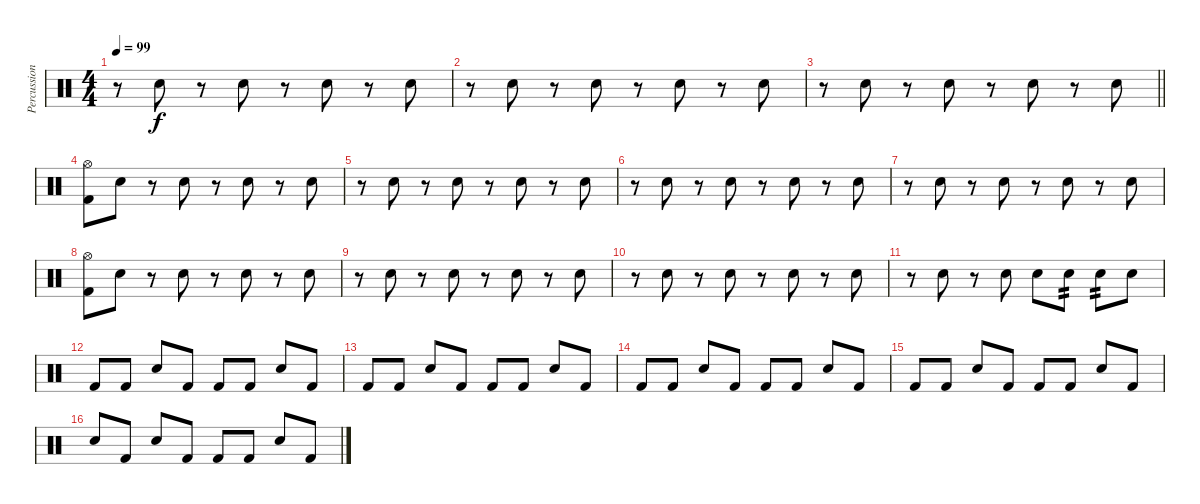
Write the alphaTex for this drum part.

\track ("Percussion" "Percussion") {instrument percussion}
\staff {score}
\articulation defaults
\ts (4 4)
\tempo 99
\clef neutral
\ks c
r.8{dy f} "Electric Snare (hit)".8 r.8 "Electric Snare (hit)".8 r.8 "Electric Snare (hit)".8 r.8 "Electric Snare (hit)".8 |
r.8 "Electric Snare (hit)".8 r.8 "Electric Snare (hit)".8 r.8 "Electric Snare (hit)".8 r.8 "Electric Snare (hit)".8 |
\barLineRight lightlight
r.8 "Electric Snare (hit)".8 r.8 "Electric Snare (hit)".8 r.8 "Electric Snare (hit)".8 r.8 "Electric Snare (hit)".8 |
("Hi-Hat (open)" "Kick (hit) 2").8 "Electric Snare (hit)".8 r.8 "Electric Snare (hit)".8 r.8 "Electric Snare (hit)".8 r.8 "Electric Snare (hit)".8 |
r.8 "Electric Snare (hit)".8 r.8 "Electric Snare (hit)".8 r.8 "Electric Snare (hit)".8 r.8 "Electric Snare (hit)".8 |
r.8 "Electric Snare (hit)".8 r.8 "Electric Snare (hit)".8 r.8 "Electric Snare (hit)".8 r.8 "Electric Snare (hit)".8 |
r.8 "Electric Snare (hit)".8 r.8 "Electric Snare (hit)".8 r.8 "Electric Snare (hit)".8 r.8 "Electric Snare (hit)".8 |
("Hi-Hat (open)" "Kick (hit) 2").8 "Electric Snare (hit)".8 r.8 "Electric Snare (hit)".8 r.8 "Electric Snare (hit)".8 r.8 "Electric Snare (hit)".8 |
r.8 "Electric Snare (hit)".8 r.8 "Electric Snare (hit)".8 r.8 "Electric Snare (hit)".8 r.8 "Electric Snare (hit)".8 |
r.8 "Electric Snare (hit)".8 r.8 "Electric Snare (hit)".8 r.8 "Electric Snare (hit)".8 r.8 "Electric Snare (hit)".8 |
r.8 "Electric Snare (hit)".8 r.8 "Electric Snare (hit)".8 "Electric Snare (hit)".8 "Electric Snare (hit)".8{tp 2} "Electric Snare (hit)".8{tp 2} "Electric Snare (hit)".8 |
"Kick (hit) 2".8 "Kick (hit) 2".8 "Electric Snare (hit)".8 "Kick (hit) 2".8 "Kick (hit) 2".8 "Kick (hit) 2".8 "Electric Snare (hit)".8 "Kick (hit) 2".8 |
"Kick (hit) 2".8 "Kick (hit) 2".8 "Electric Snare (hit)".8 "Kick (hit) 2".8 "Kick (hit) 2".8 "Kick (hit) 2".8 "Electric Snare (hit)".8 "Kick (hit) 2".8 |
"Kick (hit) 2".8 "Kick (hit) 2".8 "Electric Snare (hit)".8 "Kick (hit) 2".8 "Kick (hit) 2".8 "Kick (hit) 2".8 "Electric Snare (hit)".8 "Kick (hit) 2".8 |
"Kick (hit) 2".8 "Kick (hit) 2".8 "Electric Snare (hit)".8 "Kick (hit) 2".8 "Kick (hit) 2".8 "Kick (hit) 2".8 "Electric Snare (hit)".8 "Kick (hit) 2".8 |
"Electric Snare (hit)".8 "Kick (hit) 2".8 "Electric Snare (hit)".8 "Kick (hit) 2".8 "Kick (hit) 2".8 "Kick (hit) 2".8 "Electric Snare (hit)".8 "Kick (hit) 2".8
